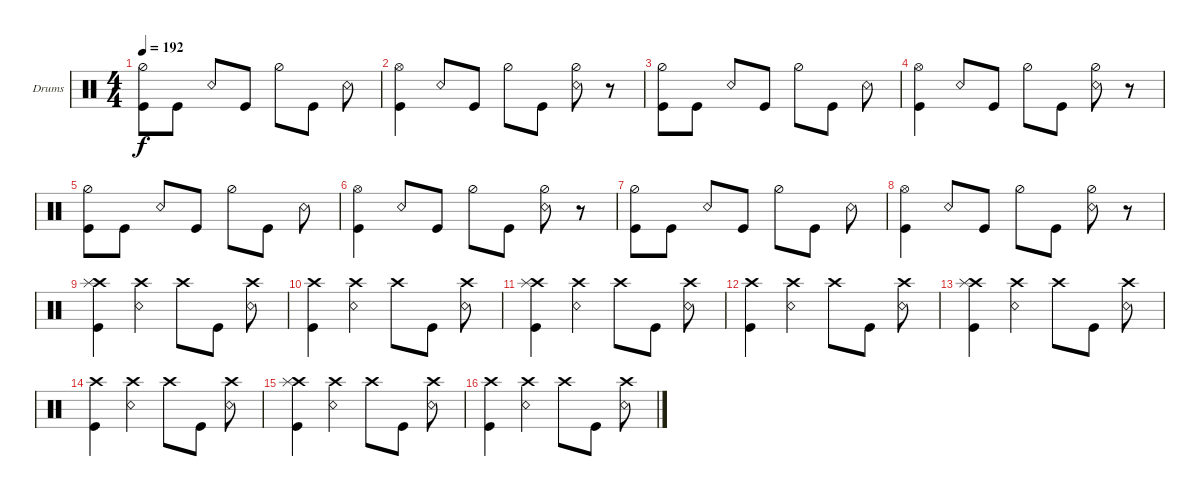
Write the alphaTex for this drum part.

\defaultSystemsLayout 4
\bracketExtendMode groupsimilarinstruments
\firstSystemTrackNameOrientation horizontal
\otherSystemsTrackNameOrientation horizontal
\track ("Drumkit" "Drums") {instrument percussion}
\staff {score}
\articulation defaults
\ts (4 4)
\tempo 192
\clef neutral
\scale
0.333333
\ks c
("Kick (hit)" "Hi-Hat (half)").8{dy f} "Kick (hit)".8 "Snare (rim shot)".8 "Kick (hit)".8 "Hi-Hat (half)".8 "Kick (hit)".8 "Snare (rim shot)".8 |
\scale
0.333333 ("Kick (hit)" "Hi-Hat (open)").4 "Snare (rim shot)".8 "Kick (hit)".8 "Hi-Hat (half)".8 "Kick (hit)".8 ("Snare (rim shot)" "Hi-Hat (half)").8 r.8 |
\scale
0.333333 ("Kick (hit)" "Hi-Hat (half)").8 "Kick (hit)".8 "Snare (rim shot)".8 "Kick (hit)".8 "Hi-Hat (half)".8 "Kick (hit)".8 "Snare (rim shot)".8 |
\scale
0.333333 ("Kick (hit)" "Hi-Hat (open)").4 "Snare (rim shot)".8 "Kick (hit)".8 "Hi-Hat (half)".8 "Kick (hit)".8 ("Snare (rim shot)" "Hi-Hat (half)").8 r.8 |
\scale
0.333333 ("Kick (hit)" "Hi-Hat (half)").8 "Kick (hit)".8 "Snare (rim shot)".8 "Kick (hit)".8 "Hi-Hat (half)".8 "Kick (hit)".8 "Snare (rim shot)".8 |
\scale
0.333333 ("Kick (hit)" "Hi-Hat (open)").4 "Snare (rim shot)".8 "Kick (hit)".8 "Hi-Hat (half)".8 "Kick (hit)".8 ("Snare (rim shot)" "Hi-Hat (half)").8 r.8 |
\scale
0.333333 ("Kick (hit)" "Hi-Hat (half)").8 "Kick (hit)".8 "Snare (rim shot)".8 "Kick (hit)".8 "Hi-Hat (half)".8 "Kick (hit)".8 "Snare (rim shot)".8 |
\scale
0.333333 ("Kick (hit)" "Hi-Hat (open)").4 "Snare (rim shot)".8 "Kick (hit)".8 "Hi-Hat (half)".8 "Kick (hit)".8 ("Snare (rim shot)" "Hi-Hat (half)").8 r.8 |
\scale
0.333333 ("Kick (hit)" "Crash high (hit)" "Splash (hit)").4 ("Snare (rim shot)" "Crash high (hit)").4 "Crash high (hit)".8 "Kick (hit)".8 ("Snare (rim shot)" "Crash high (hit)").8 |
\scale
0.333333 ("Kick (hit)" "Crash high (hit)").4 ("Snare (rim shot)" "Crash high (hit)").4 "Crash high (hit)".8 "Kick (hit)".8 ("Snare (rim shot)" "Crash high (hit)").8 |
\scale
0.333333 ("Kick (hit)" "Crash high (hit)" "Splash (hit)").4 ("Snare (rim shot)" "Crash high (hit)").4 "Crash high (hit)".8 "Kick (hit)".8 ("Snare (rim shot)" "Crash high (hit)").8 |
\scale
0.333333 ("Kick (hit)" "Crash high (hit)").4 ("Snare (rim shot)" "Crash high (hit)").4 "Crash high (hit)".8 "Kick (hit)".8 ("Snare (rim shot)" "Crash high (hit)").8 |
\scale
0.333333 ("Kick (hit)" "Crash high (hit)" "Splash (hit)").4 ("Snare (rim shot)" "Crash high (hit)").4 "Crash high (hit)".8 "Kick (hit)".8 ("Snare (rim shot)" "Crash high (hit)").8 |
\scale
0.333333 ("Kick (hit)" "Crash high (hit)").4 ("Snare (rim shot)" "Crash high (hit)").4 "Crash high (hit)".8 "Kick (hit)".8 ("Snare (rim shot)" "Crash high (hit)").8 |
\scale
0.333333 ("Kick (hit)" "Crash high (hit)" "Splash (hit)").4 ("Snare (rim shot)" "Crash high (hit)").4 "Crash high (hit)".8 "Kick (hit)".8 ("Snare (rim shot)" "Crash high (hit)").8 |
\scale
0.333333 ("Kick (hit)" "Crash high (hit)").4 ("Snare (rim shot)" "Crash high (hit)").4 "Crash high (hit)".8 "Kick (hit)".8 ("Snare (rim shot)" "Crash high (hit)").8
